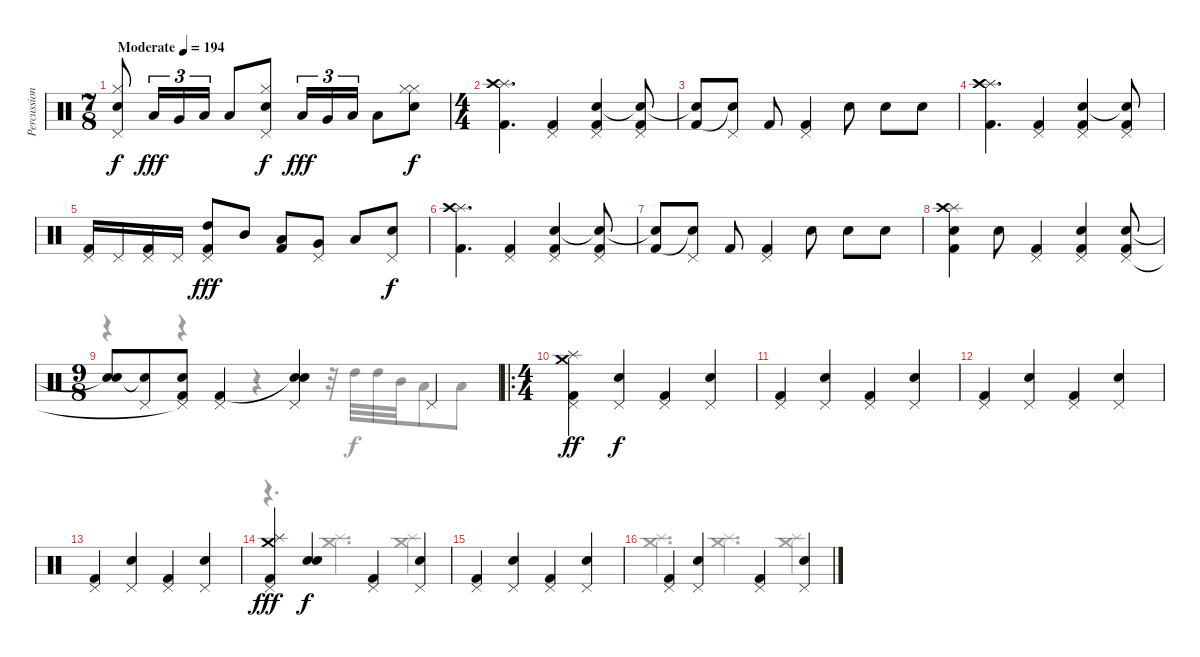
\track ("Percussion" "Percussion") {instrument percussion}
\staff {score}
\articulation defaults
\voice
\ts (7 8)
\tempo (194 "Moderate")
\clef neutral
\ks c
("Electric Snare (hit)" "Hi-Hat (closed)" "Pedal Hi-Hat (hit)").8{dy f} "Low Tom (hit)".16{tu (3 2) dy fff} "Very Low Tom (hit)".16{tu (3 2)} "Low Floor Tom (hit)".16{tu (3 2)} "Low Floor Tom (hit)".8 ("Electric Snare (hit)" "Hi-Hat (closed)" "Pedal Hi-Hat (hit)").8{dy f} "Low Tom (hit)".16{tu (3 2) dy fff} "Very Low Tom (hit)".16{tu (3 2)} "Low Floor Tom (hit)".16{tu (3 2)} "Low Floor Tom (hit)".8 ("Electric Snare (hit)" "Hi-Hat (closed)" "Hi-Hat (closed)").8{dy f} |
\ts (4 4)
("Kick (hit) 2" "Splash (hit)" "Crash high (hit)").4{d} ("Kick (hit) 2" "Pedal Hi-Hat (hit)").4 ("Kick (hit) 2" "Electric Snare (hit)" "Pedal Hi-Hat (hit)").4 ("Kick (hit) 2" "Snare (hit)"{t} "Pedal Hi-Hat (hit)").8 |
("Kick (hit) 2" "Snare (hit)"{t}).8 ("Snare (hit)"{t} "Pedal Hi-Hat (hit)").8 "Kick (hit) 2".8 ("Kick (hit) 2" "Pedal Hi-Hat (hit)").4 "Electric Snare (hit)".8 "Electric Snare (hit)".8 "Electric Snare (hit)".8 |
("Kick (hit) 2" "Splash (hit)" "Crash high (hit)").4{d} ("Kick (hit) 2" "Pedal Hi-Hat (hit)").4 ("Kick (hit) 2" "Electric Snare (hit)" "Pedal Hi-Hat (hit)").4 ("Kick (hit) 2" "Snare (hit)"{t} "Pedal Hi-Hat (hit)").8 |
("Kick (hit) 2" "Pedal Hi-Hat (hit)").16 "Pedal Hi-Hat (hit)".16 ("Kick (hit) 2" "Pedal Hi-Hat (hit)").16 "Pedal Hi-Hat (hit)".16 ("Kick (hit) 2" "High Tom (hit)" "Pedal Hi-Hat (hit)").8{dy fff} "Mid Tom (hit)".8 ("Kick (hit) 2" "Low Tom (hit)").8 ("Very Low Tom (hit)" "Pedal Hi-Hat (hit)").8 "Low Floor Tom (hit)".8 ("Electric Snare (hit)" "Pedal Hi-Hat (hit)").8{dy f} |
("Kick (hit) 2" "Splash (hit)" "Crash high (hit)").4{d} ("Kick (hit) 2" "Pedal Hi-Hat (hit)").4 ("Kick (hit) 2" "Electric Snare (hit)" "Pedal Hi-Hat (hit)").4 ("Kick (hit) 2" "Snare (hit)"{t} "Pedal Hi-Hat (hit)").8 |
("Kick (hit) 2" "Snare (hit)"{t}).8 ("Snare (hit)"{t} "Pedal Hi-Hat (hit)").8 "Kick (hit) 2".8 ("Kick (hit) 2" "Pedal Hi-Hat (hit)").4 "Electric Snare (hit)".8 "Electric Snare (hit)".8 "Electric Snare (hit)".8 |
("Kick (hit) 2" "Electric Snare (hit)" "Splash (hit)" "Crash high (hit)").4 "Electric Snare (hit)".8 ("Kick (hit) 2" "Pedal Hi-Hat (hit)").4 ("Kick (hit) 2" "Electric Snare (hit)" "Pedal Hi-Hat (hit)").4 ("Kick (hit) 2" "Electric Snare (hit)" "Pedal Hi-Hat (hit)").8 |
\ts (9 8)
("Electric Snare (hit)" "Snare (hit)"{t}).8 ("Snare (hit)"{t} "Pedal Hi-Hat (hit)").8 ("Kick (hit) 2" "Electric Snare (hit)" "Pedal Hi-Hat (hit)"{t}).8 ("Kick (hit) 2" "Pedal Hi-Hat (hit)").4 ("Snare (hit)"{t} "Electric Snare (hit)" "Pedal Hi-Hat (hit)").4 "Pedal Hi-Hat (hit)".4 |
\ro
\ts (4 4)
("Kick (hit) 2" "Splash (hit)" "Pedal Hi-Hat (hit)" "Crash medium (hit)").4{dy ff} ("Electric Snare (hit)" "Pedal Hi-Hat (hit)").4{dy f} ("Kick (hit) 2" "Pedal Hi-Hat (hit)").4 ("Electric Snare (hit)" "Pedal Hi-Hat (hit)").4 |
("Kick (hit) 2" "Pedal Hi-Hat (hit)").4 ("Electric Snare (hit)" "Pedal Hi-Hat (hit)").4 ("Kick (hit) 2" "Pedal Hi-Hat (hit)").4 ("Electric Snare (hit)" "Pedal Hi-Hat (hit)").4 |
("Kick (hit) 2" "Pedal Hi-Hat (hit)").4 ("Electric Snare (hit)" "Pedal Hi-Hat (hit)").4 ("Kick (hit) 2" "Pedal Hi-Hat (hit)").4 ("Electric Snare (hit)" "Pedal Hi-Hat (hit)").4 |
("Kick (hit) 2" "Pedal Hi-Hat (hit)").4 ("Electric Snare (hit)" "Pedal Hi-Hat (hit)").4 ("Kick (hit) 2" "Pedal Hi-Hat (hit)").4 ("Electric Snare (hit)" "Pedal Hi-Hat (hit)").4 |
("Kick (hit) 2" "Splash (hit)" "Pedal Hi-Hat (hit)" "Crash medium (hit)").4{dy fff} ("Electric Snare (hit)" "Snare (hit)").4{dy f} ("Kick (hit) 2" "Pedal Hi-Hat (hit)").4 ("Electric Snare (hit)" "Pedal Hi-Hat (hit)").4 |
("Kick (hit) 2" "Pedal Hi-Hat (hit)").4 ("Electric Snare (hit)" "Pedal Hi-Hat (hit)").4 ("Kick (hit) 2" "Pedal Hi-Hat (hit)").4 ("Electric Snare (hit)" "Pedal Hi-Hat (hit)").4 |
("Kick (hit) 2" "Pedal Hi-Hat (hit)").4 ("Electric Snare (hit)" "Pedal Hi-Hat (hit)").4 ("Kick (hit) 2" "Pedal Hi-Hat (hit)").4 ("Electric Snare (hit)" "Pedal Hi-Hat (hit)").4
\voice
\clef neutral
\ottava regular
\simile none
\ks c
|
|
|
|
|
|
|
|
r.4 r.4 r.4 r.32 "High Tom (hit)".32 "High Tom (hit)".32 "Mid Tom (hit)".32 "Low Tom (hit)".8 "Low Floor Tom (hit)".8 |
|
|
|
|
r.4{d} ("Crash medium (hit)" "Splash (hit)").4{d} ("Crash medium (hit)" "Splash (hit)").4 |
|
("Crash medium (hit)" "Splash (hit)").4{d} ("Crash medium (hit)" "Splash (hit)").4{d} ("Crash medium (hit)" "Splash (hit)").4
